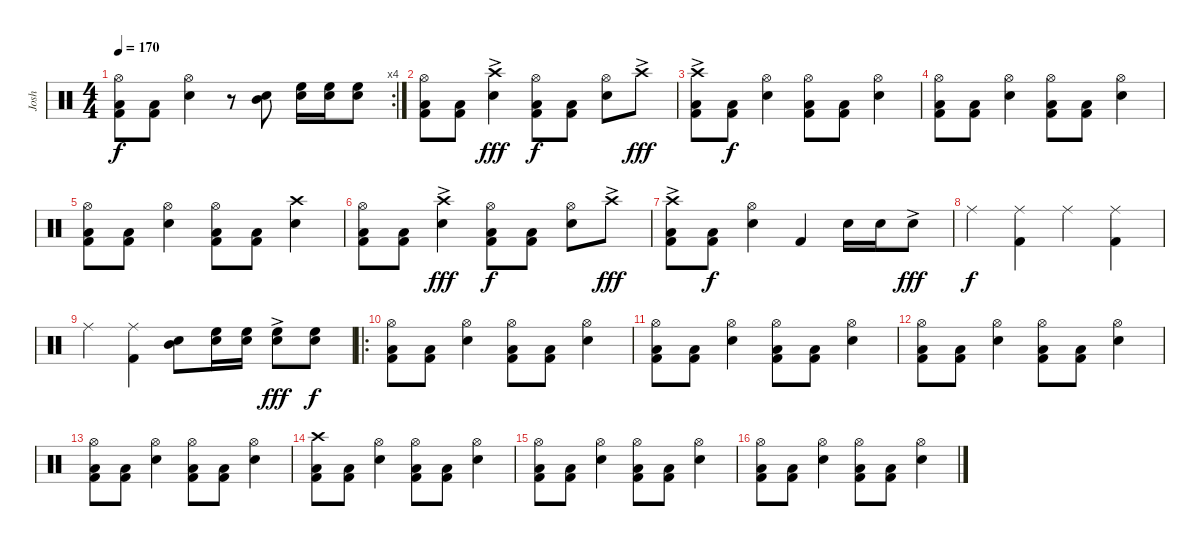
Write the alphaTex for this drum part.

\track ("Josh" "Josh") {instrument percussion}
\staff {score}
\articulation defaults
\rc 4
\ts (4 4)
\tempo 170
\clef neutral
\ks c
("Hi-Hat (open)" "Low Tom (hit)" "Kick (hit) 2").8{dy f} ("Low Tom (hit)" "Kick (hit) 2").8 ("Hi-Hat (open)" "Snare (hit) 2").4 r.8 ("Mid Tom (hit)" "Snare (hit) 2").8 ("High Floor Tom (hit)" "Snare (hit) 2").16 ("High Floor Tom (hit)" "Snare (hit) 2").16 ("High Floor Tom (hit)" "Snare (hit) 2").8 |
("Hi-Hat (open)" "Low Tom (hit)" "Kick (hit) 2").8 ("Low Tom (hit)" "Kick (hit) 2").8 ("Crash high (hit)"{ac} "Snare (hit) 2").4{dy fff} ("Hi-Hat (open)" "Low Tom (hit)" "Kick (hit) 2").8{dy f} ("Low Tom (hit)" "Kick (hit) 2").8 ("Hi-Hat (open)" "Snare (hit) 2").8 "Crash high (hit)"{ac}.8{dy fff} |
("Crash high (hit)"{ac} "Low Tom (hit)" "Kick (hit) 2").8 ("Low Tom (hit)" "Kick (hit) 2").8{dy f} ("Hi-Hat (open)" "Snare (hit) 2").4 ("Hi-Hat (open)" "Low Tom (hit)" "Kick (hit) 2").8 ("Low Tom (hit)" "Kick (hit) 2").8 ("Hi-Hat (open)" "Snare (hit) 2").4 |
("Hi-Hat (open)" "Low Tom (hit)" "Kick (hit) 2").8 ("Low Tom (hit)" "Kick (hit) 2").8 ("Hi-Hat (open)" "Snare (hit) 2").4 ("Hi-Hat (open)" "Low Tom (hit)" "Kick (hit) 2").8 ("Low Tom (hit)" "Kick (hit) 2").8 ("Hi-Hat (open)" "Snare (hit) 2").4 |
("Hi-Hat (open)" "Low Tom (hit)" "Kick (hit) 2").8 ("Low Tom (hit)" "Kick (hit) 2").8 ("Hi-Hat (open)" "Snare (hit) 2").4 ("Hi-Hat (open)" "Low Tom (hit)" "Kick (hit) 2").8 ("Low Tom (hit)" "Kick (hit) 2").8 ("Crash high (hit)" "Snare (hit) 2").4 |
("Hi-Hat (open)" "Low Tom (hit)" "Kick (hit) 2").8 ("Low Tom (hit)" "Kick (hit) 2").8 ("Crash high (hit)"{ac} "Snare (hit) 2").4{dy fff} ("Hi-Hat (open)" "Low Tom (hit)" "Kick (hit) 2").8{dy f} ("Low Tom (hit)" "Kick (hit) 2").8 ("Hi-Hat (open)" "Snare (hit) 2").8 "Crash high (hit)"{ac}.8{dy fff} |
("Crash high (hit)"{ac} "Low Tom (hit)" "Kick (hit) 2").8 ("Low Tom (hit)" "Kick (hit) 2").8{dy f} ("Hi-Hat (open)" "Snare (hit) 2").4 "Kick (hit) 2".4 "Snare (hit) 2".16 "Snare (hit) 2".16 "Snare (hit) 2"{ac}.8{dy fff} |
"Ride (middle)".4{dy f} ("Ride (middle)" "Kick (hit) 2").4 "Ride (middle)".4 ("Ride (middle)" "Kick (hit) 2").4 |
"Ride (middle)".4 ("Ride (middle)" "Kick (hit) 2").4 ("Mid Tom (hit)" "Snare (hit) 2").8 ("High Floor Tom (hit)" "Snare (hit) 2").16 ("High Floor Tom (hit)" "Snare (hit) 2").16 ("High Floor Tom (hit)"{ac} "Snare (hit) 2"{ac}).8{dy fff} ("High Floor Tom (hit)" "Snare (hit) 2").8{dy f} |
\ro
("Hi-Hat (open)" "Low Tom (hit)" "Kick (hit) 2").8 ("Low Tom (hit)" "Kick (hit) 2").8 ("Hi-Hat (open)" "Snare (hit) 2").4 ("Hi-Hat (open)" "Low Tom (hit)" "Kick (hit) 2").8 ("Low Tom (hit)" "Kick (hit) 2").8 ("Hi-Hat (open)" "Snare (hit) 2").4 |
("Hi-Hat (open)" "Low Tom (hit)" "Kick (hit) 2").8 ("Low Tom (hit)" "Kick (hit) 2").8 ("Hi-Hat (open)" "Snare (hit) 2").4 ("Hi-Hat (open)" "Low Tom (hit)" "Kick (hit) 2").8 ("Low Tom (hit)" "Kick (hit) 2").8 ("Hi-Hat (open)" "Snare (hit) 2").4 |
("Hi-Hat (open)" "Low Tom (hit)" "Kick (hit) 2").8 ("Low Tom (hit)" "Kick (hit) 2").8 ("Hi-Hat (open)" "Snare (hit) 2").4 ("Hi-Hat (open)" "Low Tom (hit)" "Kick (hit) 2").8 ("Low Tom (hit)" "Kick (hit) 2").8 ("Hi-Hat (open)" "Snare (hit) 2").4 |
("Hi-Hat (open)" "Low Tom (hit)" "Kick (hit) 2").8 ("Low Tom (hit)" "Kick (hit) 2").8 ("Hi-Hat (open)" "Snare (hit) 2").4 ("Hi-Hat (open)" "Low Tom (hit)" "Kick (hit) 2").8 ("Low Tom (hit)" "Kick (hit) 2").8 ("Hi-Hat (open)" "Snare (hit) 2").4 |
("Crash high (hit)" "Low Tom (hit)" "Kick (hit) 2").8 ("Low Tom (hit)" "Kick (hit) 2").8 ("Hi-Hat (open)" "Snare (hit) 2").4 ("Hi-Hat (open)" "Low Tom (hit)" "Kick (hit) 2").8 ("Low Tom (hit)" "Kick (hit) 2").8 ("Hi-Hat (open)" "Snare (hit) 2").4 |
("Hi-Hat (open)" "Low Tom (hit)" "Kick (hit) 2").8 ("Low Tom (hit)" "Kick (hit) 2").8 ("Hi-Hat (open)" "Snare (hit) 2").4 ("Hi-Hat (open)" "Low Tom (hit)" "Kick (hit) 2").8 ("Low Tom (hit)" "Kick (hit) 2").8 ("Hi-Hat (open)" "Snare (hit) 2").4 |
("Hi-Hat (open)" "Low Tom (hit)" "Kick (hit) 2").8 ("Low Tom (hit)" "Kick (hit) 2").8 ("Hi-Hat (open)" "Snare (hit) 2").4 ("Hi-Hat (open)" "Low Tom (hit)" "Kick (hit) 2").8 ("Low Tom (hit)" "Kick (hit) 2").8 ("Hi-Hat (open)" "Snare (hit) 2").4
